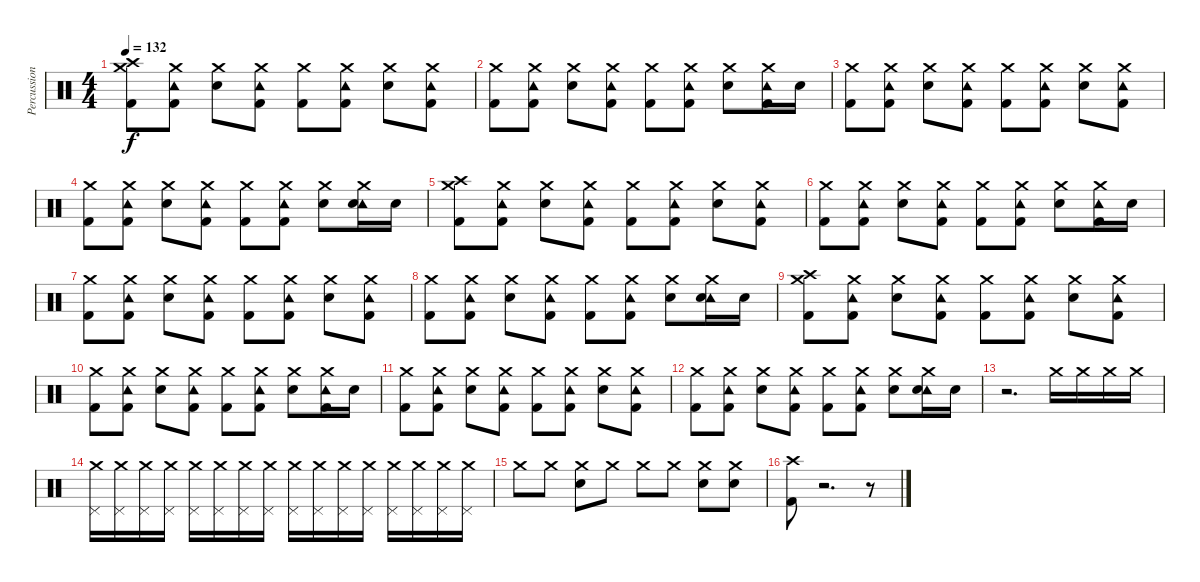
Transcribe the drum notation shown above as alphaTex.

\track ("Percussion" "Percussion") {instrument percussion}
\staff {score}
\articulation defaults
\ts (4 4)
\tempo 132
\clef neutral
\ks c
("Crash medium (hit)" "Crash high (hit)" "Kick (hit) 2").8{dy f} ("Crash medium (hit)" "Tambourine (hit)" "Kick (hit) 2").8 ("Crash medium (hit)" "Electric Snare (hit)").8 ("Crash medium (hit)" "Tambourine (hit)" "Kick (hit) 2").8 ("Crash medium (hit)" "Kick (hit) 2").8 ("Crash medium (hit)" "Tambourine (hit)" "Kick (hit) 2").8 ("Crash medium (hit)" "Electric Snare (hit)").8 ("Crash medium (hit)" "Tambourine (hit)" "Kick (hit) 2").8 |
("Crash medium (hit)" "Kick (hit) 2").8 ("Crash medium (hit)" "Tambourine (hit)" "Kick (hit) 2").8 ("Crash medium (hit)" "Electric Snare (hit)").8 ("Crash medium (hit)" "Tambourine (hit)" "Kick (hit) 2").8 ("Crash medium (hit)" "Kick (hit) 2").8 ("Crash medium (hit)" "Tambourine (hit)" "Kick (hit) 2").8 ("Crash medium (hit)" "Electric Snare (hit)").8 ("Crash medium (hit)" "Tambourine (hit)" "Kick (hit) 2").16 "Electric Snare (hit)".16 |
("Crash medium (hit)" "Kick (hit) 2").8 ("Crash medium (hit)" "Tambourine (hit)" "Kick (hit) 2").8 ("Crash medium (hit)" "Electric Snare (hit)").8 ("Crash medium (hit)" "Tambourine (hit)" "Kick (hit) 2").8 ("Crash medium (hit)" "Kick (hit) 2").8 ("Crash medium (hit)" "Tambourine (hit)" "Kick (hit) 2").8 ("Crash medium (hit)" "Electric Snare (hit)").8 ("Crash medium (hit)" "Tambourine (hit)" "Kick (hit) 2").8 |
("Crash medium (hit)" "Kick (hit) 2").8 ("Crash medium (hit)" "Tambourine (hit)" "Kick (hit) 2").8 ("Crash medium (hit)" "Electric Snare (hit)").8 ("Crash medium (hit)" "Tambourine (hit)" "Kick (hit) 2").8 ("Crash medium (hit)" "Kick (hit) 2").8 ("Crash medium (hit)" "Tambourine (hit)" "Kick (hit) 2").8 ("Crash medium (hit)" "Electric Snare (hit)").8 ("Crash medium (hit)" "Tambourine (hit)" "Electric Snare (hit)").16 "Electric Snare (hit)".16 |
("Crash medium (hit)" "Crash high (hit)" "Kick (hit) 2").8 ("Crash medium (hit)" "Tambourine (hit)" "Kick (hit) 2").8 ("Crash medium (hit)" "Electric Snare (hit)").8 ("Crash medium (hit)" "Tambourine (hit)" "Kick (hit) 2").8 ("Crash medium (hit)" "Kick (hit) 2").8 ("Crash medium (hit)" "Tambourine (hit)" "Kick (hit) 2").8 ("Crash medium (hit)" "Electric Snare (hit)").8 ("Crash medium (hit)" "Tambourine (hit)" "Kick (hit) 2").8 |
("Crash medium (hit)" "Kick (hit) 2").8 ("Crash medium (hit)" "Tambourine (hit)" "Kick (hit) 2").8 ("Crash medium (hit)" "Electric Snare (hit)").8 ("Crash medium (hit)" "Tambourine (hit)" "Kick (hit) 2").8 ("Crash medium (hit)" "Kick (hit) 2").8 ("Crash medium (hit)" "Tambourine (hit)" "Kick (hit) 2").8 ("Crash medium (hit)" "Electric Snare (hit)").8 ("Crash medium (hit)" "Tambourine (hit)" "Kick (hit) 2").16 "Electric Snare (hit)".16 |
("Crash medium (hit)" "Kick (hit) 2").8 ("Crash medium (hit)" "Tambourine (hit)" "Kick (hit) 2").8 ("Crash medium (hit)" "Electric Snare (hit)").8 ("Crash medium (hit)" "Tambourine (hit)" "Kick (hit) 2").8 ("Crash medium (hit)" "Kick (hit) 2").8 ("Crash medium (hit)" "Tambourine (hit)" "Kick (hit) 2").8 ("Crash medium (hit)" "Electric Snare (hit)").8 ("Crash medium (hit)" "Tambourine (hit)" "Kick (hit) 2").8 |
("Crash medium (hit)" "Kick (hit) 2").8 ("Crash medium (hit)" "Tambourine (hit)" "Kick (hit) 2").8 ("Crash medium (hit)" "Electric Snare (hit)").8 ("Crash medium (hit)" "Tambourine (hit)" "Kick (hit) 2").8 ("Crash medium (hit)" "Kick (hit) 2").8 ("Crash medium (hit)" "Tambourine (hit)" "Kick (hit) 2").8 ("Crash medium (hit)" "Electric Snare (hit)").8 ("Crash medium (hit)" "Tambourine (hit)" "Electric Snare (hit)").16 "Electric Snare (hit)".16 |
("Crash medium (hit)" "Crash high (hit)" "Kick (hit) 2").8 ("Crash medium (hit)" "Tambourine (hit)" "Kick (hit) 2").8 ("Crash medium (hit)" "Electric Snare (hit)").8 ("Crash medium (hit)" "Tambourine (hit)" "Kick (hit) 2").8 ("Crash medium (hit)" "Kick (hit) 2").8 ("Crash medium (hit)" "Tambourine (hit)" "Kick (hit) 2").8 ("Crash medium (hit)" "Electric Snare (hit)").8 ("Crash medium (hit)" "Tambourine (hit)" "Kick (hit) 2").8 |
("Crash medium (hit)" "Kick (hit) 2").8 ("Crash medium (hit)" "Tambourine (hit)" "Kick (hit) 2").8 ("Crash medium (hit)" "Electric Snare (hit)").8 ("Crash medium (hit)" "Tambourine (hit)" "Kick (hit) 2").8 ("Crash medium (hit)" "Kick (hit) 2").8 ("Crash medium (hit)" "Tambourine (hit)" "Kick (hit) 2").8 ("Crash medium (hit)" "Electric Snare (hit)").8 ("Crash medium (hit)" "Tambourine (hit)" "Kick (hit) 2").16 "Electric Snare (hit)".16 |
("Crash medium (hit)" "Kick (hit) 2").8 ("Crash medium (hit)" "Tambourine (hit)" "Kick (hit) 2").8 ("Crash medium (hit)" "Electric Snare (hit)").8 ("Crash medium (hit)" "Tambourine (hit)" "Kick (hit) 2").8 ("Crash medium (hit)" "Kick (hit) 2").8 ("Crash medium (hit)" "Tambourine (hit)" "Kick (hit) 2").8 ("Crash medium (hit)" "Electric Snare (hit)").8 ("Crash medium (hit)" "Tambourine (hit)" "Kick (hit) 2").8 |
("Crash medium (hit)" "Kick (hit) 2").8 ("Crash medium (hit)" "Tambourine (hit)" "Kick (hit) 2").8 ("Crash medium (hit)" "Electric Snare (hit)").8 ("Crash medium (hit)" "Tambourine (hit)" "Kick (hit) 2").8 ("Crash medium (hit)" "Kick (hit) 2").8 ("Crash medium (hit)" "Tambourine (hit)" "Kick (hit) 2").8 ("Crash medium (hit)" "Electric Snare (hit)").8 ("Crash medium (hit)" "Tambourine (hit)" "Electric Snare (hit)").16 "Electric Snare (hit)".16 |
r.2{d} "Crash medium (hit)".16 "Crash medium (hit)".16 "Crash medium (hit)".16 "Crash medium (hit)".16 |
("Pedal Hi-Hat (hit)" "Crash medium (hit)").16 ("Pedal Hi-Hat (hit)" "Crash medium (hit)").16 ("Pedal Hi-Hat (hit)" "Crash medium (hit)").16 ("Pedal Hi-Hat (hit)" "Crash medium (hit)").16 ("Pedal Hi-Hat (hit)" "Crash medium (hit)").16 ("Pedal Hi-Hat (hit)" "Crash medium (hit)").16 ("Pedal Hi-Hat (hit)" "Crash medium (hit)").16 ("Pedal Hi-Hat (hit)" "Crash medium (hit)").16 ("Pedal Hi-Hat (hit)" "Crash medium (hit)").16 ("Pedal Hi-Hat (hit)" "Crash medium (hit)").16 ("Pedal Hi-Hat (hit)" "Crash medium (hit)").16 ("Pedal Hi-Hat (hit)" "Crash medium (hit)").16 ("Pedal Hi-Hat (hit)" "Crash medium (hit)").16 ("Pedal Hi-Hat (hit)" "Crash medium (hit)").16 ("Pedal Hi-Hat (hit)" "Crash medium (hit)").16 ("Pedal Hi-Hat (hit)" "Crash medium (hit)").16 |
"Crash medium (hit)".8 "Crash medium (hit)".8 ("Crash medium (hit)" "Electric Snare (hit)").8 "Crash medium (hit)".8 "Crash medium (hit)".8 "Crash medium (hit)".8 ("Crash medium (hit)" "Electric Snare (hit)").8 ("Crash medium (hit)" "Electric Snare (hit)").8 |
("Crash high (hit)" "Kick (hit) 2").8 r.2{d} r.8
